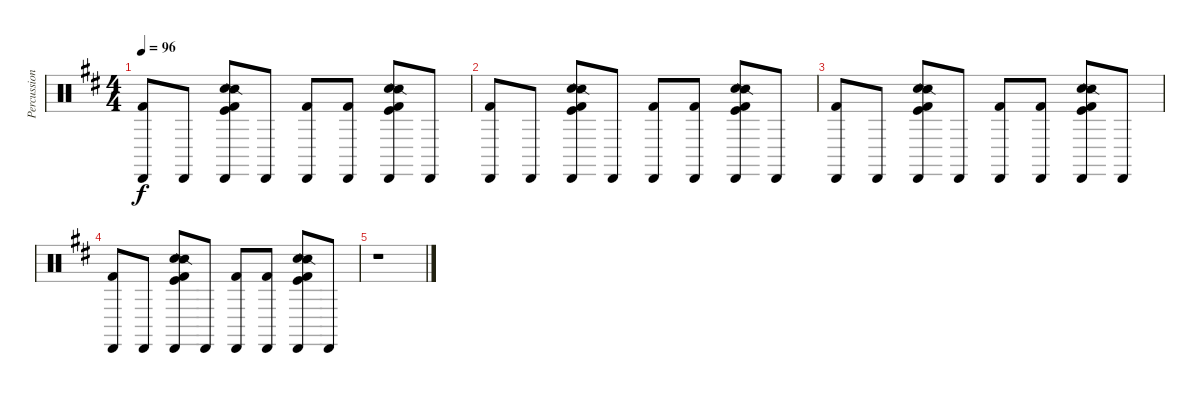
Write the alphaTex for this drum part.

\track ("Percussion" "Percussion") {instrument percussion}
\staff {score}
\articulation defaults
\ts (4 4)
\tempo 96
\clef neutral
\ks bminor
("Kick (hit) 2" "Cabasa (hit)").8{dy f} "Cabasa (hit)".8 ("Hand Clap (hit)" "Snare (side stick) 2" "Kick (hit) 2" "Kick (hit)" "Cabasa (hit)").8 "Cabasa (hit)".8 ("Kick (hit) 2" "Cabasa (hit)").8 ("Kick (hit) 2" "Cabasa (hit)").8 ("Hand Clap (hit)" "Snare (side stick) 2" "Kick (hit) 2" "Kick (hit)" "Cabasa (hit)").8 "Cabasa (hit)".8 |
("Kick (hit) 2" "Cabasa (hit)").8 "Cabasa (hit)".8 ("Hand Clap (hit)" "Snare (side stick) 2" "Kick (hit) 2" "Kick (hit)" "Cabasa (hit)").8 "Cabasa (hit)".8 ("Kick (hit) 2" "Cabasa (hit)").8 ("Kick (hit) 2" "Cabasa (hit)").8 ("Hand Clap (hit)" "Snare (side stick) 2" "Kick (hit) 2" "Kick (hit)" "Cabasa (hit)").8 "Cabasa (hit)".8 |
("Kick (hit) 2" "Cabasa (hit)").8 "Cabasa (hit)".8 ("Hand Clap (hit)" "Snare (side stick) 2" "Kick (hit) 2" "Kick (hit)" "Cabasa (hit)").8 "Cabasa (hit)".8 ("Kick (hit) 2" "Cabasa (hit)").8 ("Kick (hit) 2" "Cabasa (hit)").8 ("Hand Clap (hit)" "Snare (side stick) 2" "Kick (hit) 2" "Kick (hit)" "Cabasa (hit)").8 "Cabasa (hit)".8 |
("Kick (hit) 2" "Cabasa (hit)").8 "Cabasa (hit)".8 ("Hand Clap (hit)" "Snare (side stick) 2" "Kick (hit) 2" "Kick (hit)" "Cabasa (hit)").8 "Cabasa (hit)".8 ("Kick (hit) 2" "Cabasa (hit)").8 ("Kick (hit) 2" "Cabasa (hit)").8 ("Hand Clap (hit)" "Snare (side stick) 2" "Kick (hit) 2" "Kick (hit)" "Cabasa (hit)").8 "Cabasa (hit)".8 |
r.1
